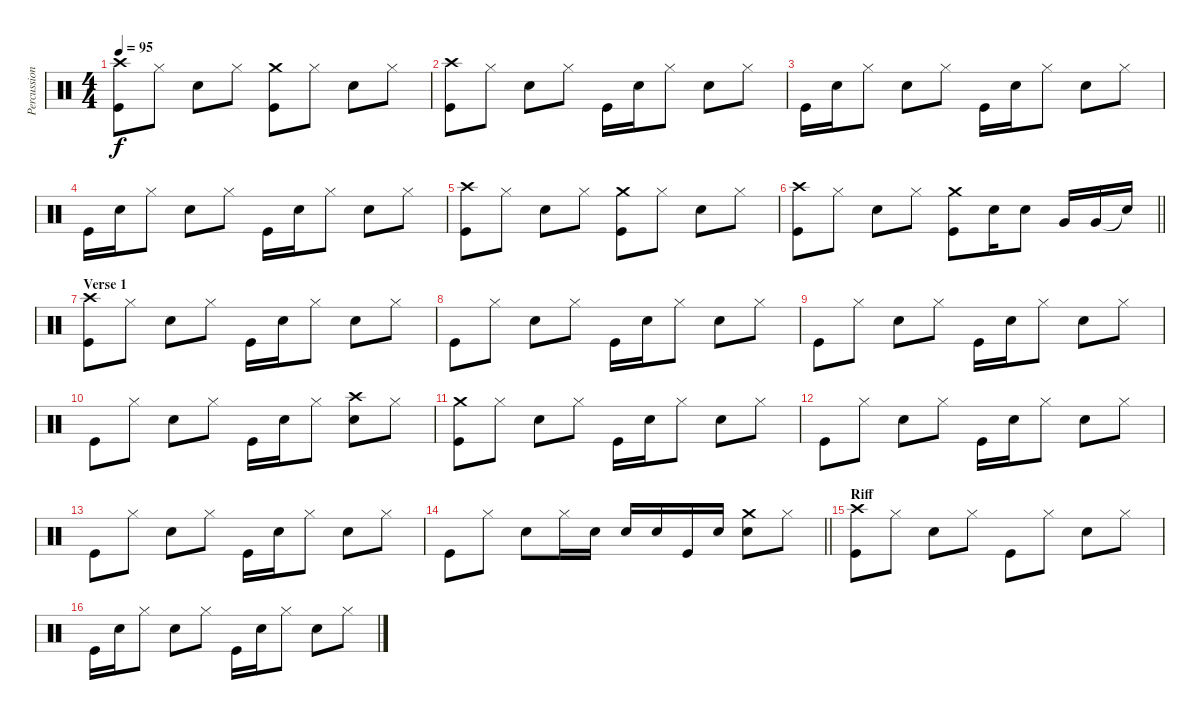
\track ("Percussion" "Percussion") {instrument percussion}
\staff {score}
\articulation defaults
\ts (4 4)
\tempo 95
\clef neutral
\ks c
("Kick (hit)" "Crash high (hit)").8{dy f} "Hi-Hat (closed)".8 "Snare (hit) 2".8 "Hi-Hat (closed)".8 ("Kick (hit)" "Crash medium (hit)").8 "Hi-Hat (closed)".8 "Snare (hit) 2".8 "Hi-Hat (closed)".8 |
("Kick (hit)" "Crash high (hit)").8 "Hi-Hat (closed)".8 "Snare (hit) 2".8 "Hi-Hat (closed)".8 "Kick (hit)".16 "Snare (hit) 2".16 "Hi-Hat (closed)".8 "Snare (hit) 2".8 "Hi-Hat (closed)".8 |
"Kick (hit)".16 "Snare (hit) 2".16 "Hi-Hat (closed)".8 "Snare (hit) 2".8 "Hi-Hat (closed)".8 "Kick (hit)".16 "Snare (hit) 2".16 "Hi-Hat (closed)".8 "Snare (hit) 2".8 "Hi-Hat (closed)".8 |
"Kick (hit)".16 "Snare (hit) 2".16 "Hi-Hat (closed)".8 "Snare (hit) 2".8 "Hi-Hat (closed)".8 "Kick (hit)".16 "Snare (hit) 2".16 "Hi-Hat (closed)".8 "Snare (hit) 2".8 "Hi-Hat (closed)".8 |
("Kick (hit)" "Crash high (hit)").8 "Hi-Hat (closed)".8 "Snare (hit) 2".8 "Hi-Hat (closed)".8 ("Kick (hit)" "Crash medium (hit)").8 "Hi-Hat (closed)".8 "Snare (hit) 2".8 "Hi-Hat (closed)".8 |
\barLineRight lightlight
("Kick (hit)" "Crash high (hit)").8 "Hi-Hat (closed)".8 "Snare (hit) 2".8 "Hi-Hat (closed)".8 ("Kick (hit)" "Crash medium (hit)").8 "Snare (hit) 2".16 "Snare (hit) 2".8 "Very Low Tom (hit)".16 "Very Low Tom (hit)".16 "Snare (hit)"{t}.16 |
\section ("" "Verse 1")
("Kick (hit)" "Crash high (hit)").8 "Hi-Hat (closed)".8 "Snare (hit) 2".8 "Hi-Hat (closed)".8 "Kick (hit)".16 "Snare (hit) 2".16 "Hi-Hat (closed)".8 "Snare (hit) 2".8 "Hi-Hat (closed)".8 |
"Kick (hit)".8 "Hi-Hat (closed)".8 "Snare (hit) 2".8 "Hi-Hat (closed)".8 "Kick (hit)".16 "Snare (hit) 2".16 "Hi-Hat (closed)".8 "Snare (hit) 2".8 "Hi-Hat (closed)".8 |
"Kick (hit)".8 "Hi-Hat (closed)".8 "Snare (hit) 2".8 "Hi-Hat (closed)".8 "Kick (hit)".16 "Snare (hit) 2".16 "Hi-Hat (closed)".8 "Snare (hit) 2".8 "Hi-Hat (closed)".8 |
"Kick (hit)".8 "Hi-Hat (closed)".8 "Snare (hit) 2".8 "Hi-Hat (closed)".8 "Kick (hit)".16 "Snare (hit) 2".16 "Hi-Hat (closed)".8 ("Crash high (hit)" "Snare (hit) 2").8 "Hi-Hat (closed)".8 |
("Kick (hit)" "Crash medium (hit)").8 "Hi-Hat (closed)".8 "Snare (hit) 2".8 "Hi-Hat (closed)".8 "Kick (hit)".16 "Snare (hit) 2".16 "Hi-Hat (closed)".8 "Snare (hit) 2".8 "Hi-Hat (closed)".8 |
"Kick (hit)".8 "Hi-Hat (closed)".8 "Snare (hit) 2".8 "Hi-Hat (closed)".8 "Kick (hit)".16 "Snare (hit) 2".16 "Hi-Hat (closed)".8 "Snare (hit) 2".8 "Hi-Hat (closed)".8 |
"Kick (hit)".8 "Hi-Hat (closed)".8 "Snare (hit) 2".8 "Hi-Hat (closed)".8 "Kick (hit)".16 "Snare (hit) 2".16 "Hi-Hat (closed)".8 "Snare (hit) 2".8 "Hi-Hat (closed)".8 |
\barLineRight lightlight "Kick (hit)".8 "Hi-Hat (closed)".8 "Snare (hit) 2".8 "Hi-Hat (closed)".16 "Snare (hit) 2".16 "Snare (hit) 2".16 "Snare (hit) 2".16 "Kick (hit)".16 "Snare (hit) 2".16
("Crash medium (hit)" "Snare (hit) 2").8 "Hi-Hat (closed)".8 |
\section ("" "Riff")
("Kick (hit)" "Crash high (hit)").8 "Hi-Hat (closed)".8 "Snare (hit) 2".8 "Hi-Hat (closed)".8 "Kick (hit)".8 "Hi-Hat (closed)".8 "Snare (hit) 2".8 "Hi-Hat (closed)".8 |
"Kick (hit)".16 "Snare (hit) 2".16 "Hi-Hat (closed)".8 "Snare (hit) 2".8 "Hi-Hat (closed)".8 "Kick (hit)".16 "Snare (hit) 2".16 "Hi-Hat (closed)".8 "Snare (hit) 2".8 "Hi-Hat (closed)".8
